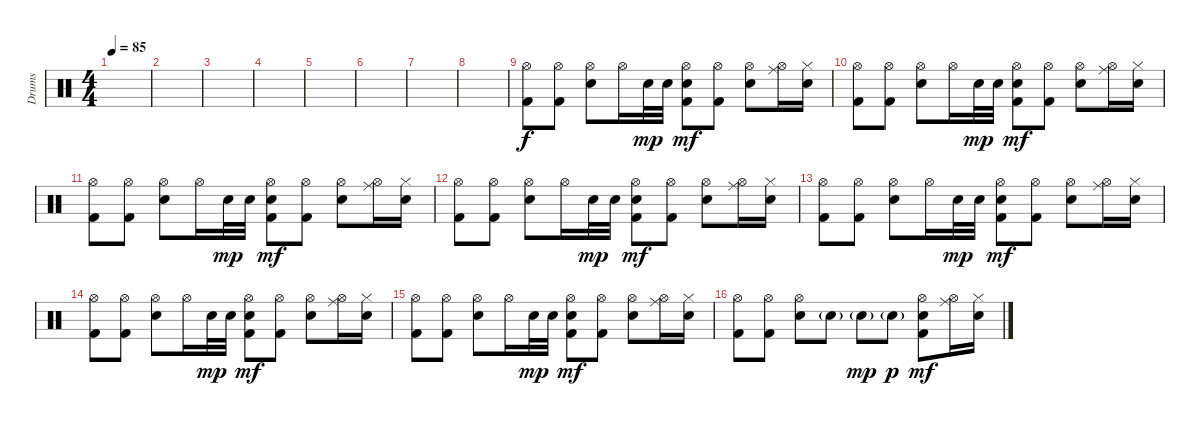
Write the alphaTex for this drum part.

\track ("Drums" "Drums") {instrument percussion}
\staff {score}
\articulation defaults
\ts (4 4)
\tempo 85
\clef neutral
\ks c
|
|
|
|
|
|
|
|
("Hi-Hat (open)" "Kick (hit) 2").8 ("Hi-Hat (open)" "Kick (hit) 2").8 ("Hi-Hat (open)" "Electric Snare (hit)").8 "Hi-Hat (open)".16 "Electric Snare (hit)".32{dy mp} "Electric Snare (hit)".32 ("Hi-Hat (open)" "Electric Snare (hit)" "Kick (hit) 2").8{dy mf} ("Hi-Hat (open)" "Kick (hit) 2").8 ("Hi-Hat (open)" "Electric Snare (hit)").8 ("Ride (middle)" "Hi-Hat (open)").16 ("Hi-Hat (closed)" "Electric Snare (hit)").16 |
("Hi-Hat (open)" "Kick (hit) 2").8 ("Hi-Hat (open)" "Kick (hit) 2").8 ("Hi-Hat (open)" "Electric Snare (hit)").8 "Hi-Hat (open)".16 "Electric Snare (hit)".32{dy mp} "Electric Snare (hit)".32 ("Hi-Hat (open)" "Electric Snare (hit)" "Kick (hit) 2").8{dy mf} ("Hi-Hat (open)" "Kick (hit) 2").8 ("Hi-Hat (open)" "Electric Snare (hit)").8 ("Ride (middle)" "Hi-Hat (open)").16 ("Hi-Hat (closed)" "Electric Snare (hit)").16 |
("Hi-Hat (open)" "Kick (hit) 2").8 ("Hi-Hat (open)" "Kick (hit) 2").8 ("Hi-Hat (open)" "Electric Snare (hit)").8 "Hi-Hat (open)".16 "Electric Snare (hit)".32{dy mp} "Electric Snare (hit)".32 ("Hi-Hat (open)" "Electric Snare (hit)" "Kick (hit) 2").8{dy mf} ("Hi-Hat (open)" "Kick (hit) 2").8 ("Hi-Hat (open)" "Electric Snare (hit)").8 ("Ride (middle)" "Hi-Hat (open)").16 ("Hi-Hat (closed)" "Electric Snare (hit)").16 |
("Hi-Hat (open)" "Kick (hit) 2").8 ("Hi-Hat (open)" "Kick (hit) 2").8 ("Hi-Hat (open)" "Electric Snare (hit)").8 "Hi-Hat (open)".16 "Electric Snare (hit)".32{dy mp} "Electric Snare (hit)".32 ("Hi-Hat (open)" "Electric Snare (hit)" "Kick (hit) 2").8{dy mf} ("Hi-Hat (open)" "Kick (hit) 2").8 ("Hi-Hat (open)" "Electric Snare (hit)").8 ("Ride (middle)" "Hi-Hat (open)").16 ("Hi-Hat (closed)" "Electric Snare (hit)").16 |
("Hi-Hat (open)" "Kick (hit) 2").8 ("Hi-Hat (open)" "Kick (hit) 2").8 ("Hi-Hat (open)" "Electric Snare (hit)").8 "Hi-Hat (open)".16 "Electric Snare (hit)".32{dy mp} "Electric Snare (hit)".32 ("Hi-Hat (open)" "Electric Snare (hit)" "Kick (hit) 2").8{dy mf} ("Hi-Hat (open)" "Kick (hit) 2").8 ("Hi-Hat (open)" "Electric Snare (hit)").8 ("Ride (middle)" "Hi-Hat (open)").16 ("Hi-Hat (closed)" "Electric Snare (hit)").16 |
("Hi-Hat (open)" "Kick (hit) 2").8 ("Hi-Hat (open)" "Kick (hit) 2").8 ("Hi-Hat (open)" "Electric Snare (hit)").8 "Hi-Hat (open)".16 "Electric Snare (hit)".32{dy mp} "Electric Snare (hit)".32 ("Hi-Hat (open)" "Electric Snare (hit)" "Kick (hit) 2").8{dy mf} ("Hi-Hat (open)" "Kick (hit) 2").8 ("Hi-Hat (open)" "Electric Snare (hit)").8 ("Ride (middle)" "Hi-Hat (open)").16 ("Hi-Hat (closed)" "Electric Snare (hit)").16 |
("Hi-Hat (open)" "Kick (hit) 2").8 ("Hi-Hat (open)" "Kick (hit) 2").8 ("Hi-Hat (open)" "Electric Snare (hit)").8 "Hi-Hat (open)".16 "Electric Snare (hit)".32{dy mp} "Electric Snare (hit)".32 ("Hi-Hat (open)" "Electric Snare (hit)" "Kick (hit) 2").8{dy mf} ("Hi-Hat (open)" "Kick (hit) 2").8 ("Hi-Hat (open)" "Electric Snare (hit)").8 ("Ride (middle)" "Hi-Hat (open)").16 ("Hi-Hat (closed)" "Electric Snare (hit)").16 |
("Hi-Hat (open)" "Kick (hit) 2").8 ("Hi-Hat (open)" "Kick (hit) 2").8 ("Hi-Hat (open)" "Electric Snare (hit)").8 "Electric Snare (hit)"{g}.8 "Electric Snare (hit)"{g}.8{dy mp} "Electric Snare (hit)"{g}.8{dy p} ("Hi-Hat (open)" "Electric Snare (hit)" "Kick (hit) 2").8{dy mf} ("Ride (middle)" "Hi-Hat (open)").16 ("Hi-Hat (closed)" "Electric Snare (hit)").16
